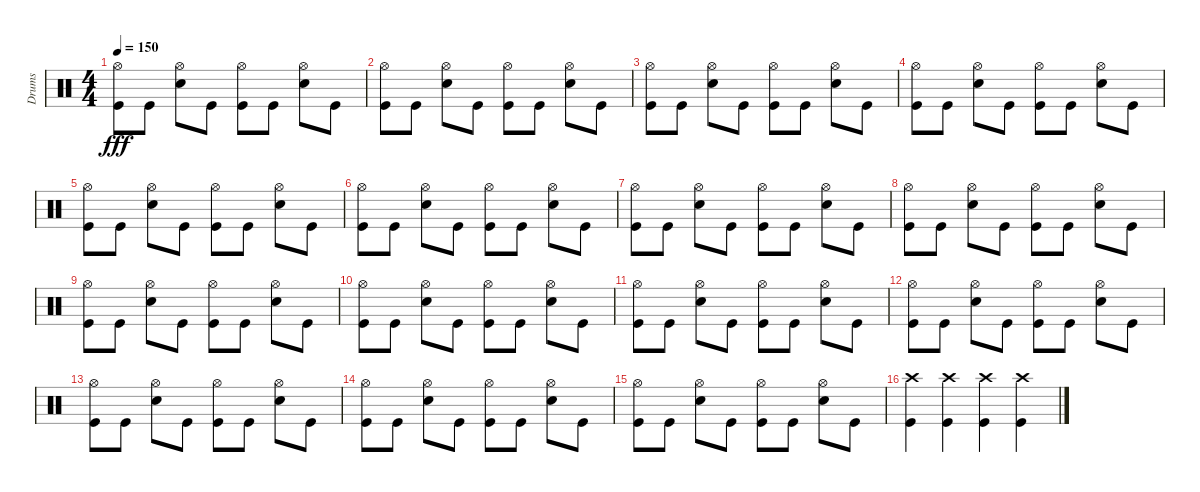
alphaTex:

\track ("Drums" "Drums") {instrument percussion}
\staff {score}
\articulation defaults
\ts (4 4)
\tempo 150
\clef neutral
\ks c
("Hi-Hat (open)" "Kick (hit)").8{dy fff} "Kick (hit)".8 ("Hi-Hat (open)" "Snare (hit) 2").8 "Kick (hit)".8 ("Hi-Hat (open)" "Kick (hit)").8 "Kick (hit)".8 ("Hi-Hat (open)" "Snare (hit) 2").8 "Kick (hit)".8 |
("Hi-Hat (open)" "Kick (hit)").8 "Kick (hit)".8 ("Hi-Hat (open)" "Snare (hit) 2").8 "Kick (hit)".8 ("Hi-Hat (open)" "Kick (hit)").8 "Kick (hit)".8 ("Hi-Hat (open)" "Snare (hit) 2").8 "Kick (hit)".8 |
("Hi-Hat (open)" "Kick (hit)").8 "Kick (hit)".8 ("Hi-Hat (open)" "Snare (hit) 2").8 "Kick (hit)".8 ("Hi-Hat (open)" "Kick (hit)").8 "Kick (hit)".8 ("Hi-Hat (open)" "Snare (hit) 2").8 "Kick (hit)".8 |
("Hi-Hat (open)" "Kick (hit)").8 "Kick (hit)".8 ("Hi-Hat (open)" "Snare (hit) 2").8 "Kick (hit)".8 ("Hi-Hat (open)" "Kick (hit)").8 "Kick (hit)".8 ("Hi-Hat (open)" "Snare (hit) 2").8 "Kick (hit)".8 |
("Hi-Hat (open)" "Kick (hit)").8 "Kick (hit)".8 ("Hi-Hat (open)" "Snare (hit) 2").8 "Kick (hit)".8 ("Hi-Hat (open)" "Kick (hit)").8 "Kick (hit)".8 ("Hi-Hat (open)" "Snare (hit) 2").8 "Kick (hit)".8 |
("Hi-Hat (open)" "Kick (hit)").8 "Kick (hit)".8 ("Hi-Hat (open)" "Snare (hit) 2").8 "Kick (hit)".8 ("Hi-Hat (open)" "Kick (hit)").8 "Kick (hit)".8 ("Hi-Hat (open)" "Snare (hit) 2").8 "Kick (hit)".8 |
("Hi-Hat (open)" "Kick (hit)").8 "Kick (hit)".8 ("Hi-Hat (open)" "Snare (hit) 2").8 "Kick (hit)".8 ("Hi-Hat (open)" "Kick (hit)").8 "Kick (hit)".8 ("Hi-Hat (open)" "Snare (hit) 2").8 "Kick (hit)".8 |
("Hi-Hat (open)" "Kick (hit)").8 "Kick (hit)".8 ("Hi-Hat (open)" "Snare (hit) 2").8 "Kick (hit)".8 ("Hi-Hat (open)" "Kick (hit)").8 "Kick (hit)".8 ("Hi-Hat (open)" "Snare (hit) 2").8 "Kick (hit)".8 |
("Hi-Hat (open)" "Kick (hit)").8 "Kick (hit)".8 ("Hi-Hat (open)" "Snare (hit) 2").8 "Kick (hit)".8 ("Hi-Hat (open)" "Kick (hit)").8 "Kick (hit)".8 ("Hi-Hat (open)" "Snare (hit) 2").8 "Kick (hit)".8 |
("Hi-Hat (open)" "Kick (hit)").8 "Kick (hit)".8 ("Hi-Hat (open)" "Snare (hit) 2").8 "Kick (hit)".8 ("Hi-Hat (open)" "Kick (hit)").8 "Kick (hit)".8 ("Hi-Hat (open)" "Snare (hit) 2").8 "Kick (hit)".8 |
("Hi-Hat (open)" "Kick (hit)").8 "Kick (hit)".8 ("Hi-Hat (open)" "Snare (hit) 2").8 "Kick (hit)".8 ("Hi-Hat (open)" "Kick (hit)").8 "Kick (hit)".8 ("Hi-Hat (open)" "Snare (hit) 2").8 "Kick (hit)".8 |
("Hi-Hat (open)" "Kick (hit)").8 "Kick (hit)".8 ("Hi-Hat (open)" "Snare (hit) 2").8 "Kick (hit)".8 ("Hi-Hat (open)" "Kick (hit)").8 "Kick (hit)".8 ("Hi-Hat (open)" "Snare (hit) 2").8 "Kick (hit)".8 |
("Hi-Hat (open)" "Kick (hit)").8 "Kick (hit)".8 ("Hi-Hat (open)" "Snare (hit) 2").8 "Kick (hit)".8 ("Hi-Hat (open)" "Kick (hit)").8 "Kick (hit)".8 ("Hi-Hat (open)" "Snare (hit) 2").8 "Kick (hit)".8 |
("Hi-Hat (open)" "Kick (hit)").8 "Kick (hit)".8 ("Hi-Hat (open)" "Snare (hit) 2").8 "Kick (hit)".8 ("Hi-Hat (open)" "Kick (hit)").8 "Kick (hit)".8 ("Hi-Hat (open)" "Snare (hit) 2").8 "Kick (hit)".8 |
("Hi-Hat (open)" "Kick (hit)").8 "Kick (hit)".8 ("Hi-Hat (open)" "Snare (hit) 2").8 "Kick (hit)".8 ("Hi-Hat (open)" "Kick (hit)").8 "Kick (hit)".8 ("Hi-Hat (open)" "Snare (hit) 2").8 "Kick (hit)".8 |
("Kick (hit)" "Crash high (hit)").4 ("Kick (hit)" "Crash high (hit)").4 ("Kick (hit)" "Crash high (hit)").4 ("Kick (hit)" "Crash high (hit)").4
